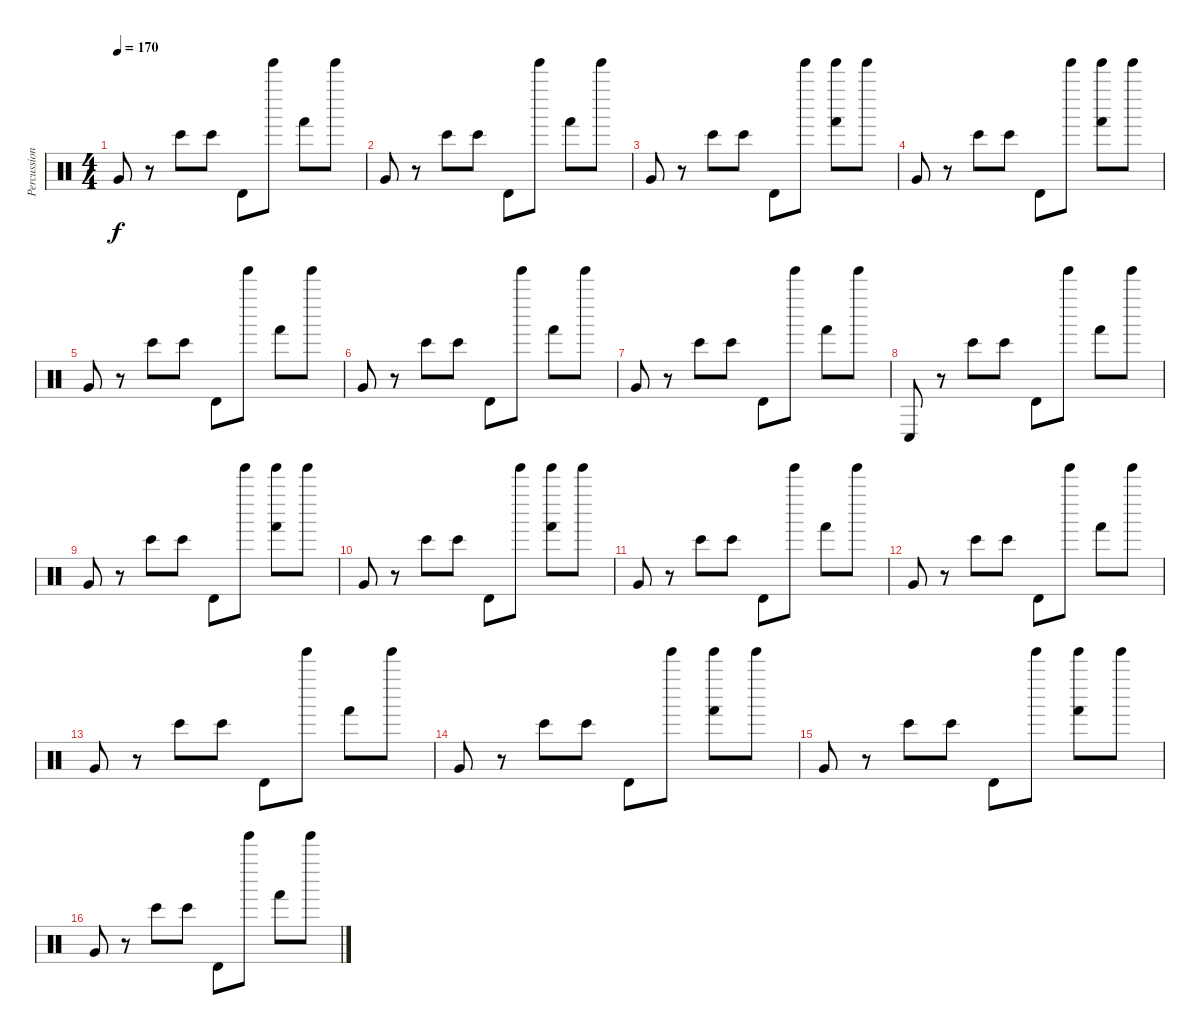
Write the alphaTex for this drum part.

\track ("Percussion" "Percussion") {instrument percussion}
\staff {score}
\articulation defaults
\ts (4 4)
\tempo 170
\clef neutral
\ks c "Very Low Tom (hit)".8{dy f}
r.8 "Bongo High (hit)".8 "Bongo High (hit)".8 "Timbale high (hit)".8 "Tinkle Bell (hit)".8 "Hand (hit)".8 "Tinkle Bell (hit)".8 |
"Very Low Tom (hit)".8 r.8 "Bongo High (hit)".8 "Bongo High (hit)".8 "Timbale high (hit)".8 "Tinkle Bell (hit)".8 "Hand (hit)".8 "Tinkle Bell (hit)".8 |
"Very Low Tom (hit)".8 r.8 "Bongo High (hit)".8 "Bongo High (hit)".8 "Timbale high (hit)".8 "Tinkle Bell (hit)".8 ("Hand (hit)" "Tinkle Bell (hit)").8 "Tinkle Bell (hit)".8 |
"Very Low Tom (hit)".8 r.8 "Bongo High (hit)".8 "Bongo High (hit)".8 "Timbale high (hit)".8 "Tinkle Bell (hit)".8 ("Hand (hit)" "Tinkle Bell (hit)").8 "Tinkle Bell (hit)".8 |
"Very Low Tom (hit)".8 r.8 "Bongo High (hit)".8 "Bongo High (hit)".8 "Timbale high (hit)".8 "Tinkle Bell (hit)".8 "Hand (hit)".8 "Tinkle Bell (hit)".8 |
"Very Low Tom (hit)".8 r.8 "Bongo High (hit)".8 "Bongo High (hit)".8 "Timbale high (hit)".8 "Tinkle Bell (hit)".8 "Hand (hit)".8 "Tinkle Bell (hit)".8 |
"Very Low Tom (hit)".8 r.8 "Bongo High (hit)".8 "Bongo High (hit)".8 "Timbale high (hit)".8 "Tinkle Bell (hit)".8 "Hand (hit)".8 "Tinkle Bell (hit)".8 |
"Conga low (hit)".8 r.8 "Bongo High (hit)".8 "Bongo High (hit)".8 "Timbale high (hit)".8 "Tinkle Bell (hit)".8 "Hand (hit)".8 "Tinkle Bell (hit)".8 |
"Very Low Tom (hit)".8 r.8 "Bongo High (hit)".8 "Bongo High (hit)".8 "Timbale high (hit)".8 "Tinkle Bell (hit)".8 ("Hand (hit)" "Tinkle Bell (hit)").8 "Tinkle Bell (hit)".8 |
"Very Low Tom (hit)".8 r.8 "Bongo High (hit)".8 "Bongo High (hit)".8 "Timbale high (hit)".8 "Tinkle Bell (hit)".8 ("Hand (hit)" "Tinkle Bell (hit)").8 "Tinkle Bell (hit)".8 |
"Very Low Tom (hit)".8 r.8 "Bongo High (hit)".8 "Bongo High (hit)".8 "Timbale high (hit)".8 "Tinkle Bell (hit)".8 "Hand (hit)".8 "Tinkle Bell (hit)".8 |
"Very Low Tom (hit)".8 r.8 "Bongo High (hit)".8 "Bongo High (hit)".8 "Timbale high (hit)".8 "Tinkle Bell (hit)".8 "Hand (hit)".8 "Tinkle Bell (hit)".8 |
"Very Low Tom (hit)".8 r.8 "Bongo High (hit)".8 "Bongo High (hit)".8 "Timbale high (hit)".8 "Tinkle Bell (hit)".8 "Hand (hit)".8 "Tinkle Bell (hit)".8 |
"Very Low Tom (hit)".8 r.8 "Bongo High (hit)".8 "Bongo High (hit)".8 "Timbale high (hit)".8 "Tinkle Bell (hit)".8 ("Hand (hit)" "Tinkle Bell (hit)").8 "Tinkle Bell (hit)".8 |
"Very Low Tom (hit)".8 r.8 "Bongo High (hit)".8 "Bongo High (hit)".8 "Timbale high (hit)".8 "Tinkle Bell (hit)".8 ("Hand (hit)" "Tinkle Bell (hit)").8 "Tinkle Bell (hit)".8 |
"Very Low Tom (hit)".8 r.8 "Bongo High (hit)".8 "Bongo High (hit)".8 "Timbale high (hit)".8 "Tinkle Bell (hit)".8 "Hand (hit)".8 "Tinkle Bell (hit)".8
